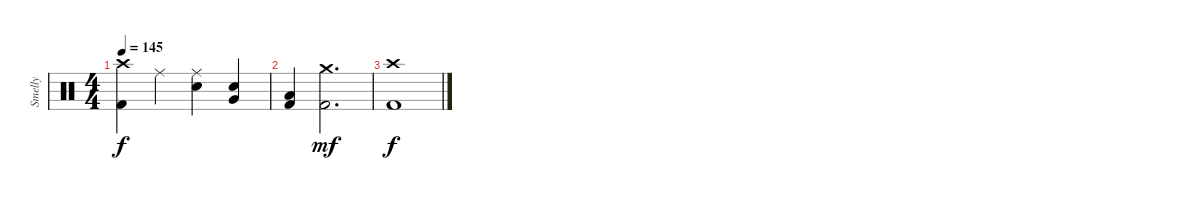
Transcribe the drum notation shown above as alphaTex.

\track ("Smelly" "Smelly") {instrument percussion}
\staff {score}
\articulation defaults
\ts (4 4)
\tempo 145
\clef neutral
\ks c
("Crash high (hit)" "Kick (hit) 2").4{dy f} "Ride (middle)".4 ("Ride (middle)" "Electric Snare (hit)").4 ("Electric Snare (hit)" "Very Low Tom (hit)").4 |
("Low Floor Tom (hit)" "Kick (hit) 2").4 ("Crash medium (hit)" "Kick (hit) 2").2{d dy mf} |
("Crash high (hit)" "Kick (hit) 2").1{dy f}
